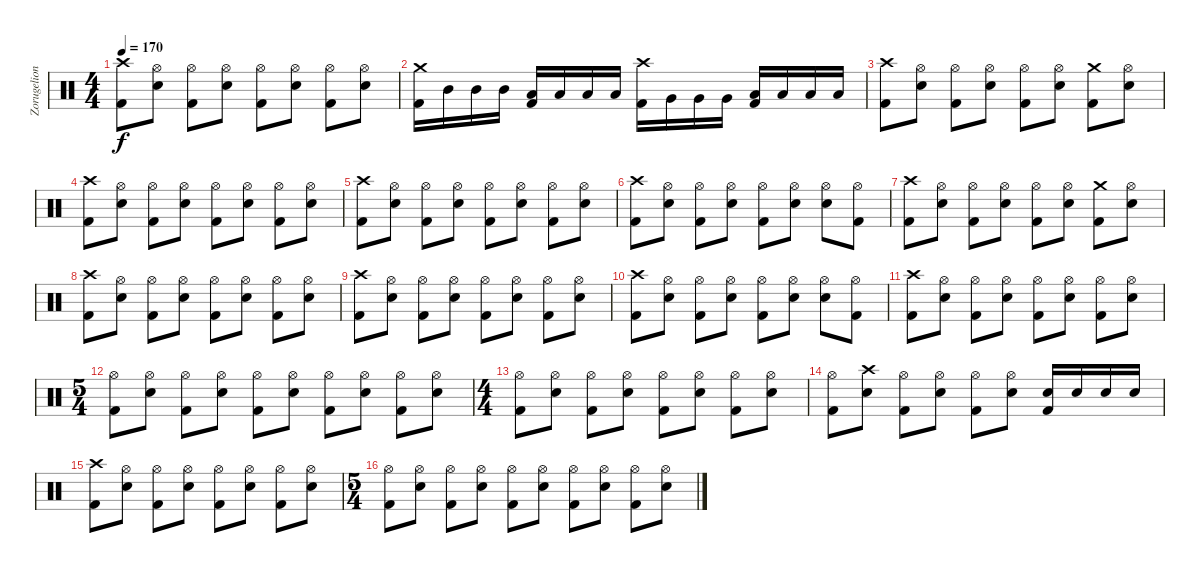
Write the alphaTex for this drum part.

\track ("Zorugelion" "Zorugelion") {instrument percussion}
\staff {score}
\articulation defaults
\ts (4 4)
\tempo 170
\clef neutral
\ks c
("Crash high (hit)" "Kick (hit) 2").8{dy f} ("Hi-Hat (open)" "Electric Snare (hit)").8 ("Hi-Hat (open)" "Kick (hit) 2").8 ("Hi-Hat (open)" "Electric Snare (hit)").8 ("Hi-Hat (open)" "Kick (hit) 2").8 ("Hi-Hat (open)" "Electric Snare (hit)").8 ("Hi-Hat (open)" "Kick (hit) 2").8 ("Hi-Hat (open)" "Electric Snare (hit)").8 |
("Crash medium (hit)" "Kick (hit) 2").16 "Mid Tom (hit)".16 "Mid Tom (hit)".16 "Mid Tom (hit)".16 ("Low Tom (hit)" "Kick (hit) 2").16 "Low Tom (hit)".16 "Low Tom (hit)".16 "Low Tom (hit)".16 ("Crash high (hit)" "Kick (hit) 2").16 "Very Low Tom (hit)".16 "Very Low Tom (hit)".16 "Very Low Tom (hit)".16 ("Low Floor Tom (hit)" "Kick (hit) 2").16 "Low Floor Tom (hit)".16 "Low Floor Tom (hit)".16 "Low Floor Tom (hit)".16 |
("Crash high (hit)" "Kick (hit) 2").8 ("Hi-Hat (open)" "Electric Snare (hit)").8 ("Hi-Hat (open)" "Kick (hit) 2").8 ("Hi-Hat (open)" "Electric Snare (hit)").8 ("Hi-Hat (open)" "Kick (hit) 2").8 ("Hi-Hat (open)" "Electric Snare (hit)").8 ("Crash medium (hit)" "Kick (hit) 2").8 ("Hi-Hat (open)" "Electric Snare (hit)").8 |
("Crash high (hit)" "Kick (hit) 2").8 ("Hi-Hat (open)" "Electric Snare (hit)").8 ("Hi-Hat (open)" "Kick (hit) 2").8 ("Hi-Hat (open)" "Electric Snare (hit)").8 ("Hi-Hat (open)" "Kick (hit) 2").8 ("Hi-Hat (open)" "Electric Snare (hit)").8 ("Hi-Hat (open)" "Kick (hit) 2").8 ("Hi-Hat (open)" "Electric Snare (hit)").8 |
("Crash high (hit)" "Kick (hit) 2").8 ("Hi-Hat (open)" "Electric Snare (hit)").8 ("Hi-Hat (open)" "Kick (hit) 2").8 ("Hi-Hat (open)" "Electric Snare (hit)").8 ("Hi-Hat (open)" "Kick (hit) 2").8 ("Hi-Hat (open)" "Electric Snare (hit)").8 ("Hi-Hat (open)" "Kick (hit) 2").8 ("Hi-Hat (open)" "Electric Snare (hit)").8 |
("Crash high (hit)" "Kick (hit) 2").8 ("Hi-Hat (open)" "Electric Snare (hit)").8 ("Hi-Hat (open)" "Kick (hit) 2").8 ("Hi-Hat (open)" "Electric Snare (hit)").8 ("Hi-Hat (open)" "Kick (hit) 2").8 ("Hi-Hat (open)" "Electric Snare (hit)").8 ("Hi-Hat (open)" "Electric Snare (hit)").8 ("Hi-Hat (open)" "Kick (hit) 2").8 |
("Crash high (hit)" "Kick (hit) 2").8 ("Hi-Hat (open)" "Electric Snare (hit)").8 ("Hi-Hat (open)" "Kick (hit) 2").8 ("Hi-Hat (open)" "Electric Snare (hit)").8 ("Hi-Hat (open)" "Kick (hit) 2").8 ("Hi-Hat (open)" "Electric Snare (hit)").8 ("Crash medium (hit)" "Kick (hit) 2").8 ("Hi-Hat (open)" "Electric Snare (hit)").8 |
("Crash high (hit)" "Kick (hit) 2").8 ("Hi-Hat (open)" "Electric Snare (hit)").8 ("Hi-Hat (open)" "Kick (hit) 2").8 ("Hi-Hat (open)" "Electric Snare (hit)").8 ("Hi-Hat (open)" "Kick (hit) 2").8 ("Hi-Hat (open)" "Electric Snare (hit)").8 ("Hi-Hat (open)" "Kick (hit) 2").8 ("Hi-Hat (open)" "Electric Snare (hit)").8 |
("Crash high (hit)" "Kick (hit) 2").8 ("Hi-Hat (open)" "Electric Snare (hit)").8 ("Hi-Hat (open)" "Kick (hit) 2").8 ("Hi-Hat (open)" "Electric Snare (hit)").8 ("Hi-Hat (open)" "Kick (hit) 2").8 ("Hi-Hat (open)" "Electric Snare (hit)").8 ("Hi-Hat (open)" "Kick (hit) 2").8 ("Hi-Hat (open)" "Electric Snare (hit)").8 |
("Crash high (hit)" "Kick (hit) 2").8 ("Hi-Hat (open)" "Electric Snare (hit)").8 ("Hi-Hat (open)" "Kick (hit) 2").8 ("Hi-Hat (open)" "Electric Snare (hit)").8 ("Hi-Hat (open)" "Kick (hit) 2").8 ("Hi-Hat (open)" "Electric Snare (hit)").8 ("Hi-Hat (open)" "Electric Snare (hit)").8 ("Hi-Hat (open)" "Kick (hit) 2").8 |
("Crash high (hit)" "Kick (hit) 2").8 ("Hi-Hat (open)" "Electric Snare (hit)").8 ("Hi-Hat (open)" "Kick (hit) 2").8 ("Hi-Hat (open)" "Electric Snare (hit)").8 ("Hi-Hat (open)" "Kick (hit) 2").8 ("Hi-Hat (open)" "Electric Snare (hit)").8 ("Hi-Hat (open)" "Kick (hit) 2").8 ("Hi-Hat (open)" "Electric Snare (hit)").8 |
\ts (5 4)
("Hi-Hat (open)" "Kick (hit) 2").8 ("Hi-Hat (open)" "Electric Snare (hit)").8 ("Hi-Hat (open)" "Kick (hit) 2").8 ("Hi-Hat (open)" "Electric Snare (hit)").8 ("Hi-Hat (open)" "Kick (hit) 2").8 ("Hi-Hat (open)" "Electric Snare (hit)").8 ("Hi-Hat (open)" "Kick (hit) 2").8 ("Hi-Hat (open)" "Electric Snare (hit)").8 ("Hi-Hat (open)" "Kick (hit) 2").8 ("Hi-Hat (open)" "Electric Snare (hit)").8 |
\ts (4 4)
("Hi-Hat (open)" "Kick (hit) 2").8 ("Hi-Hat (open)" "Electric Snare (hit)").8 ("Hi-Hat (open)" "Kick (hit) 2").8 ("Hi-Hat (open)" "Electric Snare (hit)").8 ("Hi-Hat (open)" "Kick (hit) 2").8 ("Hi-Hat (open)" "Electric Snare (hit)").8 ("Hi-Hat (open)" "Kick (hit) 2").8 ("Hi-Hat (open)" "Electric Snare (hit)").8 |
("Hi-Hat (open)" "Kick (hit) 2").8 ("Crash high (hit)" "Electric Snare (hit)").8 ("Hi-Hat (open)" "Kick (hit) 2").8 ("Hi-Hat (open)" "Electric Snare (hit)").8 ("Hi-Hat (open)" "Kick (hit) 2").8 ("Hi-Hat (open)" "Electric Snare (hit)").8 ("Electric Snare (hit)" "Kick (hit) 2").16 "Electric Snare (hit)".16 "Electric Snare (hit)".16 "Electric Snare (hit)".16 |
("Crash high (hit)" "Kick (hit) 2").8 ("Hi-Hat (open)" "Electric Snare (hit)").8 ("Hi-Hat (open)" "Kick (hit) 2").8 ("Hi-Hat (open)" "Electric Snare (hit)").8 ("Hi-Hat (open)" "Kick (hit) 2").8 ("Hi-Hat (open)" "Electric Snare (hit)").8 ("Hi-Hat (open)" "Kick (hit) 2").8 ("Hi-Hat (open)" "Electric Snare (hit)").8 |
\ts (5 4)
("Hi-Hat (open)" "Kick (hit) 2").8 ("Hi-Hat (open)" "Electric Snare (hit)").8 ("Hi-Hat (open)" "Kick (hit) 2").8 ("Hi-Hat (open)" "Electric Snare (hit)").8 ("Hi-Hat (open)" "Kick (hit) 2").8 ("Hi-Hat (open)" "Electric Snare (hit)").8 ("Hi-Hat (open)" "Kick (hit) 2").8 ("Hi-Hat (open)" "Electric Snare (hit)").8 ("Hi-Hat (open)" "Kick (hit) 2").8 ("Hi-Hat (open)" "Electric Snare (hit)").8
